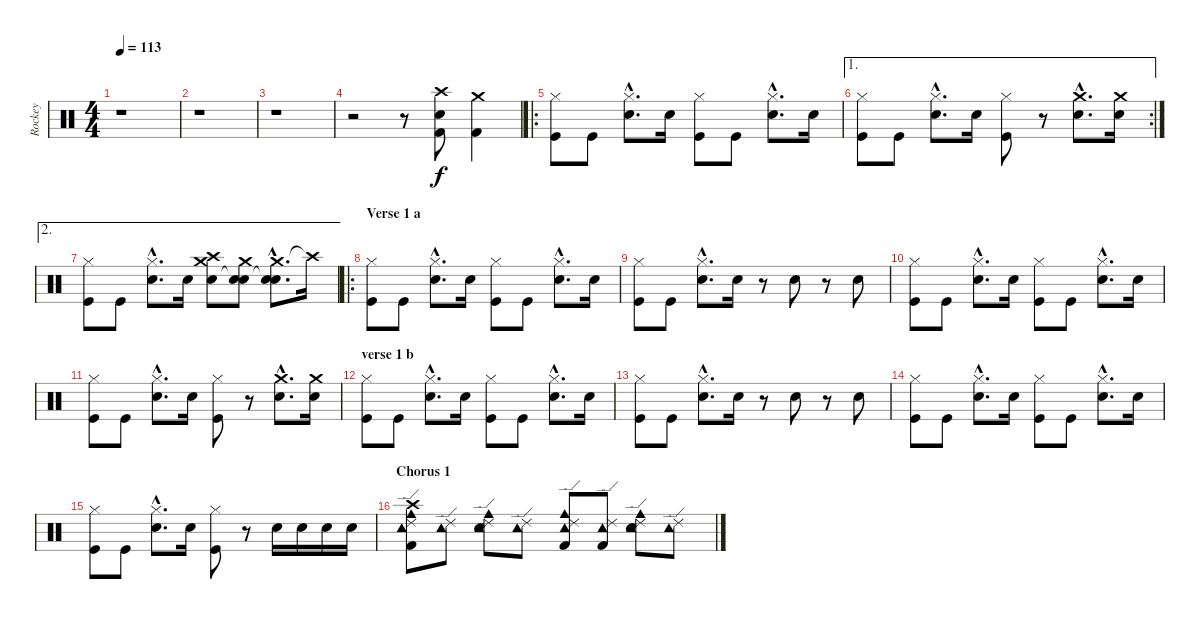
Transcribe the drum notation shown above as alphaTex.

\track ("Rockey" "Rockey") {instrument percussion}
\staff {score}
\articulation defaults
\ts (4 4)
\tempo 113
\clef neutral
\ks c
r.1{dy f} |
r.1 |
r.1 |
r.2 r.8 ("Crash high (hit)" "Kick (hit) 2" "Snare (hit) 2").8 ("Crash medium (hit)" "Kick (hit) 2").4 |
\ro
("Hi-Hat (closed)" "Kick (hit)").8 "Kick (hit)".8 ("Hi-Hat (closed)"{hac} "Snare (hit) 2"{hac}).8{d} "Snare (hit) 2".16 ("Hi-Hat (closed)" "Kick (hit)").8 "Kick (hit)".8 ("Hi-Hat (closed)"{hac} "Snare (hit) 2"{hac}).8{d} "Snare (hit) 2".16 |
\ae 1
\rc 2
("Hi-Hat (closed)" "Kick (hit)").8 "Kick (hit)".8 ("Hi-Hat (closed)"{hac} "Snare (hit) 2"{hac}).8{d} "Snare (hit) 2".16 ("Hi-Hat (closed)" "Kick (hit)").8 r.8 ("Crash medium (hit)"{hac} "Snare (hit) 2"{hac}).8{d} ("Crash medium (hit)" "Snare (hit) 2").16 |
\ae 2
("Hi-Hat (closed)" "Kick (hit)").8 "Kick (hit)".8 ("Hi-Hat (closed)"{hac} "Snare (hit) 2"{hac}).8{d} "Snare (hit) 2".16 ("Crash high (hit)" "Crash medium (hit)" "Snare (hit) 2").8 ("Crash medium (hit)" "Snare (hit) 2" "Snare (hit)"{t}).8 ("Crash medium (hit)"{hac} "Snare (hit) 2"{hac} "Snare (hit)"{hac t}).8{d} "Crash high (hit)"{t}.16 |
\ro
\section ("" "Verse 1 a")
("Hi-Hat (closed)" "Kick (hit)").8 "Kick (hit)".8 ("Hi-Hat (closed)"{hac} "Snare (hit) 2"{hac}).8{d} "Snare (hit) 2".16 ("Hi-Hat (closed)" "Kick (hit)").8 "Kick (hit)".8 ("Hi-Hat (closed)"{hac} "Snare (hit) 2"{hac}).8{d} "Snare (hit) 2".16 |
("Hi-Hat (closed)" "Kick (hit)").8 "Kick (hit)".8 ("Hi-Hat (closed)"{hac} "Snare (hit) 2"{hac}).8{d} "Snare (hit) 2".16 r.8 "Snare (hit) 2".8 r.8 "Snare (hit) 2".8 |
("Hi-Hat (closed)" "Kick (hit)").8 "Kick (hit)".8 ("Hi-Hat (closed)"{hac} "Snare (hit) 2"{hac}).8{d} "Snare (hit) 2".16 ("Hi-Hat (closed)" "Kick (hit)").8 "Kick (hit)".8 ("Hi-Hat (closed)"{hac} "Snare (hit) 2"{hac}).8{d} "Snare (hit) 2".16 |
("Hi-Hat (closed)" "Kick (hit)").8 "Kick (hit)".8 ("Hi-Hat (closed)"{hac} "Snare (hit) 2"{hac}).8{d} "Snare (hit) 2".16 ("Hi-Hat (closed)" "Kick (hit)").8 r.8 ("Crash medium (hit)"{hac} "Snare (hit) 2"{hac}).8{d} ("Crash medium (hit)" "Snare (hit) 2").16 |
\section ("" "verse 1 b")
("Hi-Hat (closed)" "Kick (hit)").8 "Kick (hit)".8 ("Hi-Hat (closed)"{hac} "Snare (hit) 2"{hac}).8{d} "Snare (hit) 2".16 ("Hi-Hat (closed)" "Kick (hit)").8 "Kick (hit)".8 ("Hi-Hat (closed)"{hac} "Snare (hit) 2"{hac}).8{d} "Snare (hit) 2".16 |
("Hi-Hat (closed)" "Kick (hit)").8 "Kick (hit)".8 ("Hi-Hat (closed)"{hac} "Snare (hit) 2"{hac}).8{d} "Snare (hit) 2".16 r.8 "Snare (hit) 2".8 r.8 "Snare (hit) 2".8 |
("Hi-Hat (closed)" "Kick (hit)").8 "Kick (hit)".8 ("Hi-Hat (closed)"{hac} "Snare (hit) 2"{hac}).8{d} "Snare (hit) 2".16 ("Hi-Hat (closed)" "Kick (hit)").8 "Kick (hit)".8 ("Hi-Hat (closed)"{hac} "Snare (hit) 2"{hac}).8{d} "Snare (hit) 2".16 |
("Hi-Hat (closed)" "Kick (hit)").8 "Kick (hit)".8 ("Hi-Hat (closed)"{hac} "Snare (hit) 2"{hac}).8{d} "Snare (hit) 2".16 ("Hi-Hat (closed)" "Kick (hit)").8 r.8 "Snare (hit) 2".16 "Snare (hit) 2".16 "Snare (hit) 2".16 "Snare (hit) 2".16 |
\section ("" "Chorus 1")
("Ride (edge) 2" "Crash high (hit)" "Cowbell medium (hit)" "Kick (hit) 2" "Tambourine (hit)").8 ("Ride (edge) 2" "Tambourine (hit)").8 ("Ride (edge) 2" "Cowbell medium (hit)" "Snare (hit) 2" "Tambourine (hit)").8 ("Ride (edge) 2" "Tambourine (hit)").8 ("Ride (edge) 2" "Cowbell medium (hit)" "Kick (hit) 2" "Tambourine (hit)").8 ("Ride (edge) 2" "Kick (hit) 2" "Tambourine (hit)").8 ("Ride (edge) 2" "Cowbell medium (hit)" "Snare (hit) 2" "Tambourine (hit)").8 ("Ride (edge) 2" "Tambourine (hit)").8
